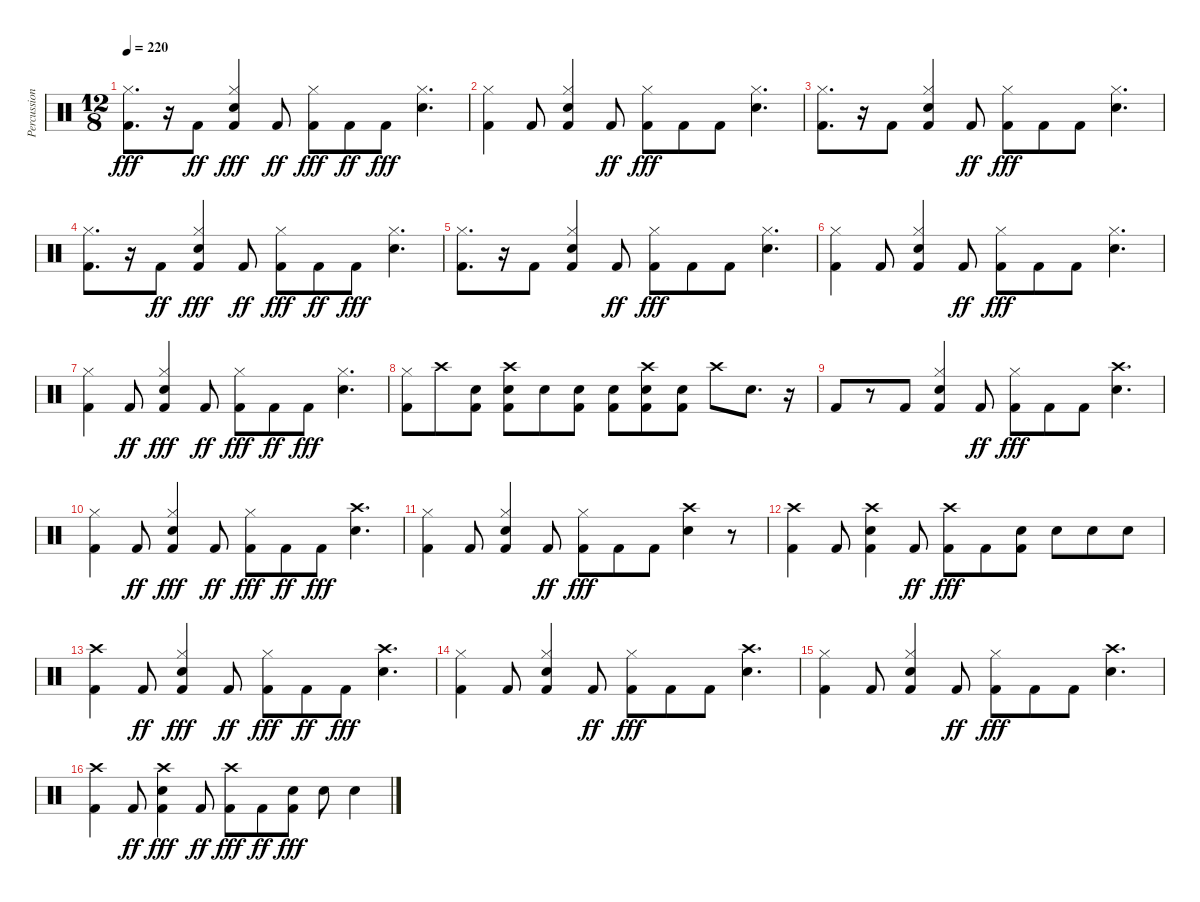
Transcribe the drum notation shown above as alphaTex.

\track ("Percussion" "Percussion") {instrument percussion}
\staff {score}
\articulation defaults
\ts (12 8)
\tempo 220
\clef neutral
\ks c
("Kick (hit) 2" "Hi-Hat (closed)").8{d dy fff} r.16 "Kick (hit) 2".8{dy ff} ("Kick (hit) 2" "Snare (hit) 2" "Hi-Hat (closed)").4{dy fff} "Kick (hit) 2".8{dy ff} ("Kick (hit) 2" "Hi-Hat (closed)").8{dy fff} "Kick (hit) 2".8{dy ff} "Kick (hit) 2".8{dy fff} ("Snare (hit) 2" "Hi-Hat (closed)").4{d} |
("Kick (hit) 2" "Hi-Hat (closed)").4 "Kick (hit) 2".8 ("Kick (hit) 2" "Snare (hit) 2" "Hi-Hat (closed)").4 "Kick (hit) 2".8{dy ff} ("Kick (hit) 2" "Hi-Hat (closed)").8{dy fff} "Kick (hit) 2".8 "Kick (hit) 2".8 ("Snare (hit) 2" "Hi-Hat (closed)").4{d} |
("Kick (hit) 2" "Hi-Hat (closed)").8{d} r.16 "Kick (hit) 2".8 ("Kick (hit) 2" "Snare (hit) 2" "Hi-Hat (closed)").4 "Kick (hit) 2".8{dy ff} ("Kick (hit) 2" "Hi-Hat (closed)").8{dy fff} "Kick (hit) 2".8 "Kick (hit) 2".8 ("Snare (hit) 2" "Hi-Hat (closed)").4{d} |
("Kick (hit) 2" "Hi-Hat (closed)").8{d} r.16 "Kick (hit) 2".8{dy ff} ("Kick (hit) 2" "Snare (hit) 2" "Hi-Hat (closed)").4{dy fff} "Kick (hit) 2".8{dy ff} ("Kick (hit) 2" "Hi-Hat (closed)").8{dy fff} "Kick (hit) 2".8{dy ff} "Kick (hit) 2".8{dy fff} ("Snare (hit) 2" "Hi-Hat (closed)").4{d} |
("Kick (hit) 2" "Hi-Hat (closed)").8{d} r.16 "Kick (hit) 2".8 ("Kick (hit) 2" "Snare (hit) 2" "Hi-Hat (closed)").4 "Kick (hit) 2".8{dy ff} ("Kick (hit) 2" "Hi-Hat (closed)").8{dy fff} "Kick (hit) 2".8 "Kick (hit) 2".8 ("Snare (hit) 2" "Hi-Hat (closed)").4{d} |
("Kick (hit) 2" "Hi-Hat (closed)").4 "Kick (hit) 2".8 ("Kick (hit) 2" "Snare (hit) 2" "Hi-Hat (closed)").4 "Kick (hit) 2".8{dy ff} ("Kick (hit) 2" "Hi-Hat (closed)").8{dy fff} "Kick (hit) 2".8 "Kick (hit) 2".8 ("Snare (hit) 2" "Hi-Hat (closed)").4{d} |
("Kick (hit) 2" "Hi-Hat (closed)").4 "Kick (hit) 2".8{dy ff} ("Kick (hit) 2" "Snare (hit) 2" "Hi-Hat (closed)").4{dy fff} "Kick (hit) 2".8{dy ff} ("Kick (hit) 2" "Hi-Hat (closed)").8{dy fff} "Kick (hit) 2".8{dy ff} "Kick (hit) 2".8{dy fff} ("Snare (hit) 2" "Hi-Hat (closed)").4{d} |
("Kick (hit) 2" "Hi-Hat (closed)").8 "Crash high (hit)".8 ("Kick (hit) 2" "Snare (hit) 2").8 ("Kick (hit) 2" "Snare (hit) 2" "Crash high (hit)").8 "Snare (hit) 2".8 ("Kick (hit) 2" "Snare (hit) 2").8 ("Kick (hit) 2" "Snare (hit) 2").8 ("Kick (hit) 2" "Snare (hit) 2" "Crash high (hit)").8 ("Kick (hit) 2" "Snare (hit) 2").8 "Crash high (hit)".8 "Snare (hit) 2".8{d} r.16 |
"Kick (hit) 2".8 r.8 "Kick (hit) 2".8 ("Kick (hit) 2" "Snare (hit) 2" "Hi-Hat (closed)").4 "Kick (hit) 2".8{dy ff} ("Kick (hit) 2" "Hi-Hat (closed)").8{dy fff} "Kick (hit) 2".8 "Kick (hit) 2".8 ("Snare (hit) 2" "Crash high (hit)").4{d} |
("Kick (hit) 2" "Hi-Hat (closed)").4 "Kick (hit) 2".8{dy ff} ("Kick (hit) 2" "Snare (hit) 2" "Hi-Hat (closed)").4{dy fff} "Kick (hit) 2".8{dy ff} ("Kick (hit) 2" "Hi-Hat (closed)").8{dy fff} "Kick (hit) 2".8{dy ff} "Kick (hit) 2".8{dy fff} ("Snare (hit) 2" "Crash high (hit)").4{d} |
("Kick (hit) 2" "Hi-Hat (closed)").4 "Kick (hit) 2".8 ("Kick (hit) 2" "Snare (hit) 2" "Hi-Hat (closed)").4 "Kick (hit) 2".8{dy ff} ("Kick (hit) 2" "Hi-Hat (closed)").8{dy fff} "Kick (hit) 2".8 "Kick (hit) 2".8 ("Snare (hit) 2" "Crash high (hit)").4 r.8 |
("Kick (hit) 2" "Crash high (hit)").4 "Kick (hit) 2".8 ("Kick (hit) 2" "Snare (hit) 2" "Crash high (hit)").4 "Kick (hit) 2".8{dy ff} ("Kick (hit) 2" "Crash high (hit)").8{dy fff} "Kick (hit) 2".8 ("Kick (hit) 2" "Snare (hit) 2").8 "Snare (hit) 2".8 "Snare (hit) 2".8 "Snare (hit) 2".8 |
("Kick (hit) 2" "Crash high (hit)").4 "Kick (hit) 2".8{dy ff} ("Kick (hit) 2" "Snare (hit) 2" "Hi-Hat (closed)").4{dy fff} "Kick (hit) 2".8{dy ff} ("Kick (hit) 2" "Hi-Hat (closed)").8{dy fff} "Kick (hit) 2".8{dy ff} "Kick (hit) 2".8{dy fff} ("Snare (hit) 2" "Crash high (hit)").4{d} |
("Kick (hit) 2" "Hi-Hat (closed)").4 "Kick (hit) 2".8 ("Kick (hit) 2" "Snare (hit) 2" "Hi-Hat (closed)").4 "Kick (hit) 2".8{dy ff} ("Kick (hit) 2" "Hi-Hat (closed)").8{dy fff} "Kick (hit) 2".8 "Kick (hit) 2".8 ("Snare (hit) 2" "Crash high (hit)").4{d} |
("Kick (hit) 2" "Hi-Hat (closed)").4 "Kick (hit) 2".8 ("Kick (hit) 2" "Snare (hit) 2" "Hi-Hat (closed)").4 "Kick (hit) 2".8{dy ff} ("Kick (hit) 2" "Hi-Hat (closed)").8{dy fff} "Kick (hit) 2".8 "Kick (hit) 2".8 ("Snare (hit) 2" "Crash high (hit)").4{d} |
("Kick (hit) 2" "Crash high (hit)").4 "Kick (hit) 2".8{dy ff} ("Kick (hit) 2" "Snare (hit) 2" "Crash high (hit)").4{dy fff} "Kick (hit) 2".8{dy ff} ("Kick (hit) 2" "Crash high (hit)").8{dy fff} "Kick (hit) 2".8{dy ff} ("Kick (hit) 2" "Snare (hit) 2").8{dy fff} "Snare (hit) 2".8 "Snare (hit) 2".4
